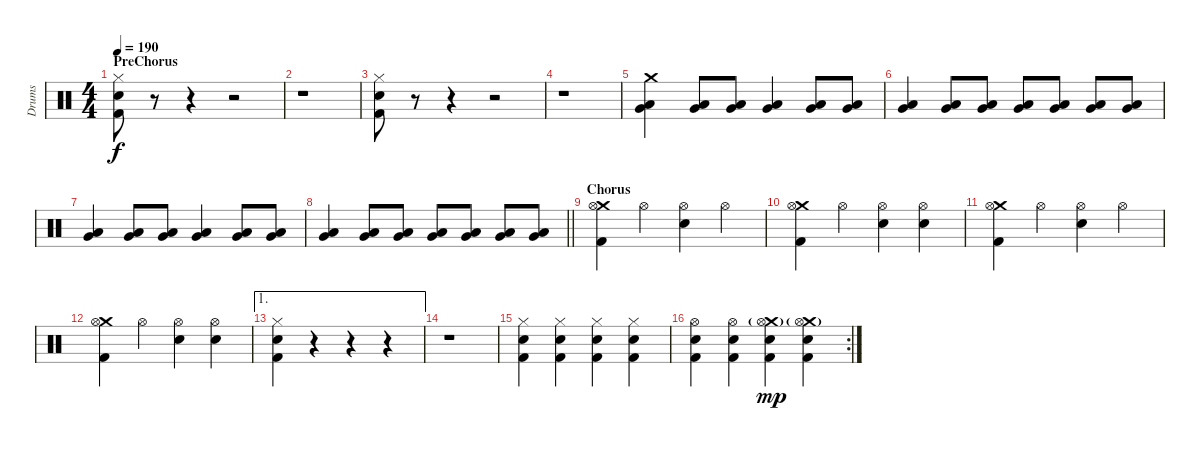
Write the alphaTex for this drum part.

\track ("Drums" "Drums") {instrument percussion}
\staff {score}
\articulation defaults
\ts (4 4)
\section ("" "PreChorus")
\tempo 190
\clef neutral
\ks c
("Hi-Hat (closed)" "Electric Snare (hit)" "Kick (hit) 2").8{dy f} r.8 r.4 r.2 |
r.1 |
("Hi-Hat (closed)" "Electric Snare (hit)" "Kick (hit) 2").8 r.8 r.4 r.2 |
r.1 |
("Crash medium (hit)" "Low Tom (hit)" "Very Low Tom (hit)").4 ("Low Tom (hit)" "Very Low Tom (hit)").8 ("Low Tom (hit)" "Very Low Tom (hit)").8 ("Low Tom (hit)" "Very Low Tom (hit)").4 ("Low Tom (hit)" "Very Low Tom (hit)").8 ("Low Tom (hit)" "Very Low Tom (hit)").8 |
("Low Tom (hit)" "Very Low Tom (hit)").4 ("Low Tom (hit)" "Very Low Tom (hit)").8 ("Low Tom (hit)" "Very Low Tom (hit)").8 ("Low Tom (hit)" "Very Low Tom (hit)").8 ("Low Tom (hit)" "Very Low Tom (hit)").8 ("Low Tom (hit)" "Very Low Tom (hit)").8 ("Low Tom (hit)" "Very Low Tom (hit)").8 |
("Low Tom (hit)" "Very Low Tom (hit)").4 ("Low Tom (hit)" "Very Low Tom (hit)").8 ("Low Tom (hit)" "Very Low Tom (hit)").8 ("Low Tom (hit)" "Very Low Tom (hit)").4 ("Low Tom (hit)" "Very Low Tom (hit)").8 ("Low Tom (hit)" "Very Low Tom (hit)").8 |
\barLineRight lightlight
("Low Tom (hit)" "Very Low Tom (hit)").4 ("Low Tom (hit)" "Very Low Tom (hit)").8 ("Low Tom (hit)" "Very Low Tom (hit)").8 ("Low Tom (hit)" "Very Low Tom (hit)").8 ("Low Tom (hit)" "Very Low Tom (hit)").8 ("Low Tom (hit)" "Very Low Tom (hit)").8 ("Low Tom (hit)" "Very Low Tom (hit)").8 |
\section ("" "Chorus")
("Crash medium (hit)" "Hi-Hat (open)" "Kick (hit) 2").4 "Hi-Hat (open)".4 ("Hi-Hat (open)" "Electric Snare (hit)").4 "Hi-Hat (open)".4 |
("Crash medium (hit)" "Hi-Hat (open)" "Kick (hit) 2").4 "Hi-Hat (open)".4 ("Hi-Hat (open)" "Electric Snare (hit)").4 ("Hi-Hat (open)" "Electric Snare (hit)").4 |
("Crash medium (hit)" "Hi-Hat (open)" "Kick (hit) 2").4 "Hi-Hat (open)".4 ("Hi-Hat (open)" "Electric Snare (hit)").4 "Hi-Hat (open)".4 |
("Crash medium (hit)" "Hi-Hat (open)" "Kick (hit) 2").4 "Hi-Hat (open)".4 ("Hi-Hat (open)" "Electric Snare (hit)").4 ("Hi-Hat (open)" "Electric Snare (hit)").4 |
\ae 1
("Hi-Hat (closed)" "Electric Snare (hit)" "Kick (hit) 2").4 r.4 r.4 r.4 |
r.1 |
("Hi-Hat (closed)" "Electric Snare (hit)" "Kick (hit) 2").4 ("Hi-Hat (closed)" "Electric Snare (hit)" "Kick (hit) 2").4 ("Hi-Hat (closed)" "Electric Snare (hit)" "Kick (hit) 2").4 ("Hi-Hat (closed)" "Electric Snare (hit)" "Kick (hit) 2").4 |
\rc 2
("Hi-Hat (open)" "Electric Snare (hit)" "Kick (hit) 2").4 ("Hi-Hat (open)" "Electric Snare (hit)" "Kick (hit) 2").4 ("Crash medium (hit)"{g} "Hi-Hat (open)" "Electric Snare (hit)" "Kick (hit) 2").4{dy mp} ("Crash medium (hit)"{g} "Hi-Hat (open)" "Electric Snare (hit)" "Kick (hit) 2").4
